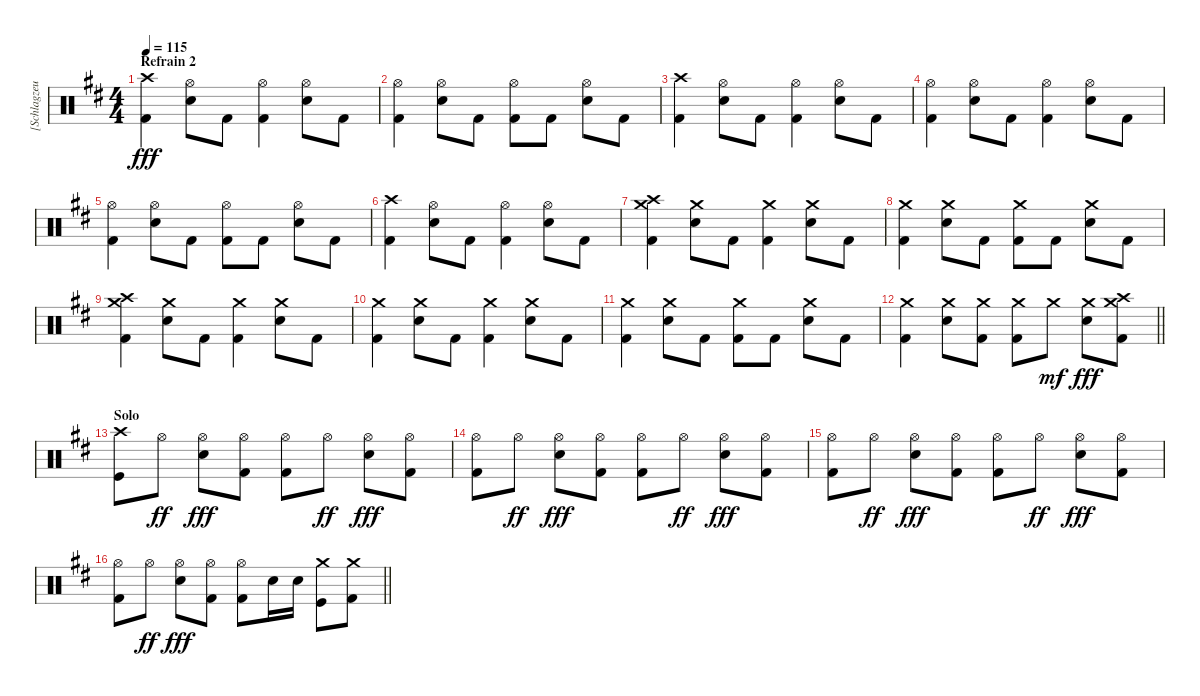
\track ("[Schlagzeug]" "[Schlagzeu") {instrument percussion}
\staff {score}
\articulation defaults
\ts (4 4)
\section ("" "Refrain 2")
\tempo 115
\clef neutral
\ks bminor
("Crash high (hit)" "Kick (hit) 2").4{dy fff} ("Hi-Hat (open)" "Electric Snare (hit)").8 "Kick (hit) 2".8 ("Hi-Hat (open)" "Kick (hit) 2").4 ("Hi-Hat (open)" "Electric Snare (hit)").8 "Kick (hit) 2".8 |
("Hi-Hat (open)" "Kick (hit) 2").4 ("Hi-Hat (open)" "Electric Snare (hit)").8 "Kick (hit) 2".8 ("Hi-Hat (open)" "Kick (hit) 2").8 "Kick (hit) 2".8 ("Hi-Hat (open)" "Electric Snare (hit)").8 "Kick (hit) 2".8 |
("Crash high (hit)" "Kick (hit) 2").4 ("Hi-Hat (open)" "Electric Snare (hit)").8 "Kick (hit) 2".8 ("Hi-Hat (open)" "Kick (hit) 2").4 ("Hi-Hat (open)" "Electric Snare (hit)").8 "Kick (hit) 2".8 |
("Hi-Hat (open)" "Kick (hit) 2").4 ("Hi-Hat (open)" "Electric Snare (hit)").8 "Kick (hit) 2".8 ("Hi-Hat (open)" "Kick (hit) 2").4 ("Hi-Hat (open)" "Electric Snare (hit)").8 "Kick (hit) 2".8 |
("Hi-Hat (open)" "Kick (hit) 2").4 ("Hi-Hat (open)" "Electric Snare (hit)").8 "Kick (hit) 2".8 ("Hi-Hat (open)" "Kick (hit) 2").8 "Kick (hit) 2".8 ("Hi-Hat (open)" "Electric Snare (hit)").8 "Kick (hit) 2".8 |
("Crash high (hit)" "Kick (hit) 2").4 ("Hi-Hat (open)" "Electric Snare (hit)").8 "Kick (hit) 2".8 ("Hi-Hat (open)" "Kick (hit) 2").4 ("Hi-Hat (open)" "Electric Snare (hit)").8 "Kick (hit) 2".8 |
("Crash medium (hit)" "Crash high (hit)" "Kick (hit) 2").4 ("Crash medium (hit)" "Electric Snare (hit)").8 "Kick (hit) 2".8 ("Crash medium (hit)" "Kick (hit) 2").4 ("Crash medium (hit)" "Electric Snare (hit)").8 "Kick (hit) 2".8 |
("Crash medium (hit)" "Kick (hit) 2").4 ("Crash medium (hit)" "Electric Snare (hit)").8 "Kick (hit) 2".8 ("Crash medium (hit)" "Kick (hit) 2").8 "Kick (hit) 2".8 ("Crash medium (hit)" "Electric Snare (hit)").8 "Kick (hit) 2".8 |
("Crash medium (hit)" "Crash high (hit)" "Kick (hit) 2").4 ("Crash medium (hit)" "Electric Snare (hit)").8 "Kick (hit) 2".8 ("Crash medium (hit)" "Kick (hit) 2").4 ("Crash medium (hit)" "Electric Snare (hit)").8 "Kick (hit) 2".8 |
("Crash medium (hit)" "Kick (hit) 2").4 ("Crash medium (hit)" "Electric Snare (hit)").8 "Kick (hit) 2".8 ("Crash medium (hit)" "Kick (hit) 2").4 ("Crash medium (hit)" "Electric Snare (hit)").8 "Kick (hit) 2".8 |
("Crash medium (hit)" "Kick (hit) 2").4 ("Crash medium (hit)" "Electric Snare (hit)").8 "Kick (hit) 2".8 ("Crash medium (hit)" "Kick (hit) 2").8 "Kick (hit) 2".8 ("Crash medium (hit)" "Electric Snare (hit)").8 "Kick (hit) 2".8 |
\barLineRight lightlight
("Crash medium (hit)" "Kick (hit) 2").4 ("Crash medium (hit)" "Electric Snare (hit)").8 ("Crash medium (hit)" "Kick (hit) 2").8 ("Crash medium (hit)" "Kick (hit) 2").8 "Crash medium (hit)".8{dy mf} ("Crash medium (hit)" "Electric Snare (hit)").8{dy fff} ("Crash medium (hit)" "Crash high (hit)" "Kick (hit) 2").8 |
\section ("" "Solo")
("Crash high (hit)" "Kick (hit)").8 "Hi-Hat (open)".8{dy ff} ("Hi-Hat (open)" "Electric Snare (hit)").8{dy fff} ("Hi-Hat (open)" "Kick (hit) 2").8 ("Hi-Hat (open)" "Kick (hit) 2").8 "Hi-Hat (open)".8{dy ff} ("Hi-Hat (open)" "Electric Snare (hit)").8{dy fff} ("Hi-Hat (open)" "Kick (hit) 2").8 |
("Hi-Hat (open)" "Kick (hit) 2").8 "Hi-Hat (open)".8{dy ff} ("Hi-Hat (open)" "Electric Snare (hit)").8{dy fff} ("Hi-Hat (open)" "Kick (hit) 2").8 ("Hi-Hat (open)" "Kick (hit) 2").8 "Hi-Hat (open)".8{dy ff} ("Hi-Hat (open)" "Electric Snare (hit)").8{dy fff} ("Hi-Hat (open)" "Kick (hit) 2").8 |
("Hi-Hat (open)" "Kick (hit) 2").8 "Hi-Hat (open)".8{dy ff} ("Hi-Hat (open)" "Electric Snare (hit)").8{dy fff} ("Hi-Hat (open)" "Kick (hit) 2").8 ("Hi-Hat (open)" "Kick (hit) 2").8 "Hi-Hat (open)".8{dy ff} ("Hi-Hat (open)" "Electric Snare (hit)").8{dy fff} ("Hi-Hat (open)" "Kick (hit) 2").8 |
\barLineRight lightlight
("Hi-Hat (open)" "Kick (hit) 2").8 "Hi-Hat (open)".8{dy ff} ("Hi-Hat (open)" "Electric Snare (hit)").8{dy fff} ("Hi-Hat (open)" "Kick (hit) 2").8 ("Hi-Hat (open)" "Kick (hit) 2").8 "Electric Snare (hit)".16 "Electric Snare (hit)".16 ("Crash medium (hit)" "Kick (hit)").8 ("Crash medium (hit)" "Kick (hit) 2").8
